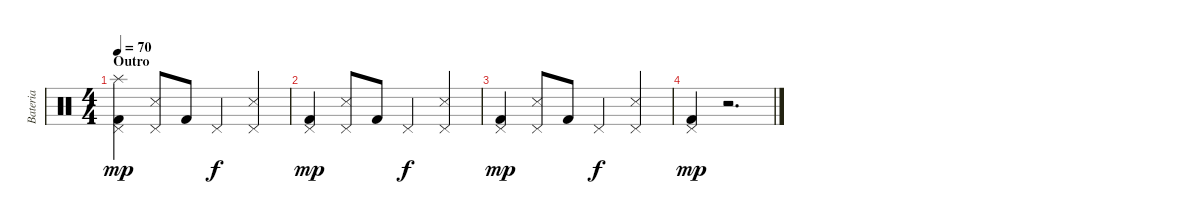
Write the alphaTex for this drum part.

\track ("Bateria" "Bateria") {instrument percussion}
\staff {score}
\articulation defaults
\ts (4 4)
\section ("" "Outro")
\tempo 70
\clef neutral
\ks c
("Kick (hit) 2" "Pedal Hi-Hat (hit)" "Splash (hit)").4{dy mp} ("Snare (side stick) 3" "Pedal Hi-Hat (hit)").8 "Kick (hit) 2".8 "Pedal Hi-Hat (hit)".4{dy f} ("Snare (side stick) 3" "Pedal Hi-Hat (hit)").4 |
("Kick (hit) 2" "Pedal Hi-Hat (hit)").4{dy mp} ("Snare (side stick) 3" "Pedal Hi-Hat (hit)").8 "Kick (hit) 2".8 "Pedal Hi-Hat (hit)".4{dy f} ("Snare (side stick) 3" "Pedal Hi-Hat (hit)").4 |
("Kick (hit) 2" "Pedal Hi-Hat (hit)").4{dy mp} ("Snare (side stick) 3" "Pedal Hi-Hat (hit)").8 "Kick (hit) 2".8 "Pedal Hi-Hat (hit)".4{dy f} ("Snare (side stick) 3" "Pedal Hi-Hat (hit)").4 |
("Pedal Hi-Hat (hit)" "Kick (hit) 2").4{dy mp} r.2{d}
